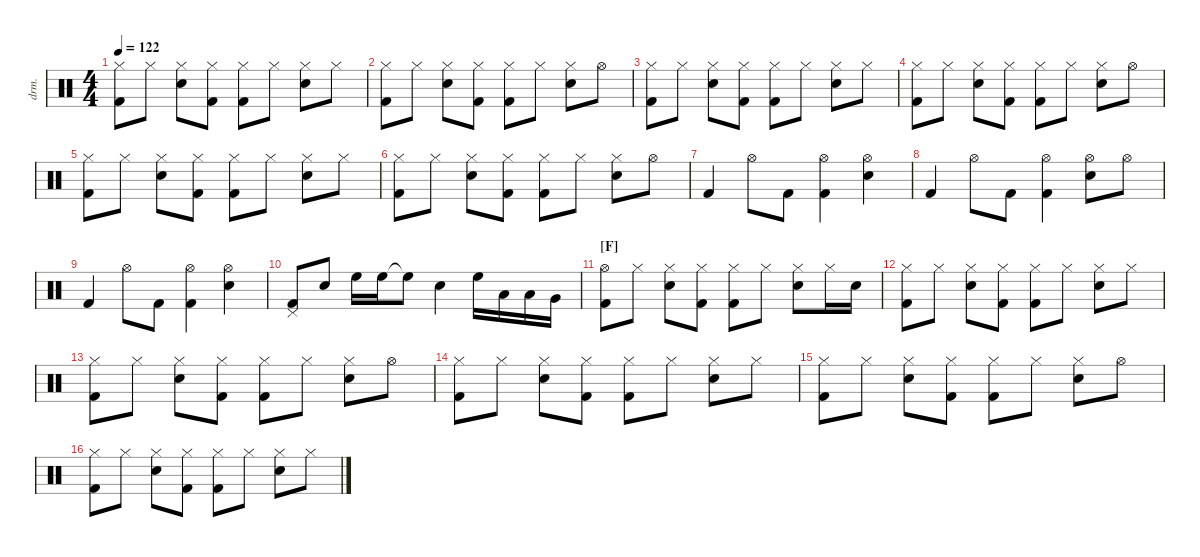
\defaultSystemsLayout 4
\hideDynamics
\bracketExtendMode nobrackets
\track ("Drumkit" "drm.") {defaultSystemsLayout 4 instrument percussion}
\staff {score}
\articulation defaults
\ts (4 4)
\tempo 122
\clef neutral
\ks c
("Hi-Hat (closed)" "Kick (hit) 2").8{dy f} "Hi-Hat (closed)".8 ("Hi-Hat (closed)" "Snare (hit) 2").8 ("Hi-Hat (closed)" "Kick (hit) 2").8 ("Hi-Hat (closed)" "Kick (hit) 2").8 "Hi-Hat (closed)".8 ("Hi-Hat (closed)" "Snare (hit) 2").8 "Hi-Hat (closed)".8 |
("Hi-Hat (closed)" "Kick (hit) 2").8 "Hi-Hat (closed)".8 ("Hi-Hat (closed)" "Snare (hit) 2").8 ("Hi-Hat (closed)" "Kick (hit) 2").8 ("Hi-Hat (closed)" "Kick (hit) 2").8 "Hi-Hat (closed)".8 ("Hi-Hat (closed)" "Snare (hit) 2").8 "Hi-Hat (open)".8 |
("Hi-Hat (closed)" "Kick (hit) 2").8 "Hi-Hat (closed)".8 ("Hi-Hat (closed)" "Snare (hit) 2").8 ("Hi-Hat (closed)" "Kick (hit) 2").8 ("Hi-Hat (closed)" "Kick (hit) 2").8 "Hi-Hat (closed)".8 ("Hi-Hat (closed)" "Snare (hit) 2").8 "Hi-Hat (closed)".8 |
("Hi-Hat (closed)" "Kick (hit) 2").8 "Hi-Hat (closed)".8 ("Hi-Hat (closed)" "Snare (hit) 2").8 ("Hi-Hat (closed)" "Kick (hit) 2").8 ("Hi-Hat (closed)" "Kick (hit) 2").8 "Hi-Hat (closed)".8 ("Hi-Hat (closed)" "Snare (hit) 2").8 "Hi-Hat (open)".8 |
("Hi-Hat (closed)" "Kick (hit) 2").8 "Hi-Hat (closed)".8 ("Hi-Hat (closed)" "Snare (hit) 2").8 ("Hi-Hat (closed)" "Kick (hit) 2").8 ("Hi-Hat (closed)" "Kick (hit) 2").8 "Hi-Hat (closed)".8 ("Hi-Hat (closed)" "Snare (hit) 2").8 "Hi-Hat (closed)".8 |
("Hi-Hat (closed)" "Kick (hit) 2").8 "Hi-Hat (closed)".8 ("Hi-Hat (closed)" "Snare (hit) 2").8 ("Hi-Hat (closed)" "Kick (hit) 2").8 ("Hi-Hat (closed)" "Kick (hit) 2").8 "Hi-Hat (closed)".8 ("Hi-Hat (closed)" "Snare (hit) 2").8 "Hi-Hat (open)".8 |
"Kick (hit) 2".4 "Hi-Hat (open)".8 "Kick (hit) 2".8 ("Hi-Hat (open)" "Kick (hit) 2").4 ("Hi-Hat (open)" "Snare (hit) 2").4 |
"Kick (hit) 2".4 "Hi-Hat (open)".8 "Kick (hit) 2".8 ("Hi-Hat (open)" "Kick (hit) 2").4 ("Hi-Hat (open)" "Snare (hit) 2").8 "Hi-Hat (open)".8 |
"Kick (hit) 2".4 "Hi-Hat (open)".8 "Kick (hit) 2".8 ("Hi-Hat (open)" "Kick (hit) 2").4 ("Hi-Hat (open)" "Snare (hit) 2").4 |
("Pedal Hi-Hat (hit)" "Kick (hit) 2").8 "Snare (hit) 2".8 "High Floor Tom (hit)".16 "High Floor Tom (hit)".16 "High Floor Tom (hit)"{t}.8 "Snare (hit) 2".4 "High Floor Tom (hit)".16 "Low Tom (hit)".16 "Low Tom (hit)".16 "Very Low Tom (hit)".16 |
\section ("F" "")
("Hi-Hat (open)" "Kick (hit) 2").8 "Hi-Hat (closed)".8 ("Hi-Hat (closed)" "Snare (hit) 2").8 ("Hi-Hat (closed)" "Kick (hit) 2").8 ("Hi-Hat (closed)" "Kick (hit) 2").8 "Hi-Hat (closed)".8 ("Hi-Hat (closed)" "Snare (hit) 2").8 "Hi-Hat (closed)".16 "Snare (hit) 2".16 |
("Hi-Hat (closed)" "Kick (hit) 2").8 "Hi-Hat (closed)".8 ("Hi-Hat (closed)" "Snare (hit) 2").8 ("Hi-Hat (closed)" "Kick (hit) 2").8 ("Hi-Hat (closed)" "Kick (hit) 2").8 "Hi-Hat (closed)".8 ("Hi-Hat (closed)" "Snare (hit) 2").8 "Hi-Hat (closed)".8 |
("Hi-Hat (closed)" "Kick (hit) 2").8 "Hi-Hat (closed)".8 ("Hi-Hat (closed)" "Snare (hit) 2").8 ("Hi-Hat (closed)" "Kick (hit) 2").8 ("Hi-Hat (closed)" "Kick (hit) 2").8 "Hi-Hat (closed)".8 ("Hi-Hat (closed)" "Snare (hit) 2").8 "Hi-Hat (open)".8 |
("Hi-Hat (closed)" "Kick (hit) 2").8 "Hi-Hat (closed)".8 ("Hi-Hat (closed)" "Snare (hit) 2").8 ("Hi-Hat (closed)" "Kick (hit) 2").8 ("Hi-Hat (closed)" "Kick (hit) 2").8 "Hi-Hat (closed)".8 ("Hi-Hat (closed)" "Snare (hit) 2").8 "Hi-Hat (closed)".8 |
("Hi-Hat (closed)" "Kick (hit) 2").8 "Hi-Hat (closed)".8 ("Hi-Hat (closed)" "Snare (hit) 2").8 ("Hi-Hat (closed)" "Kick (hit) 2").8 ("Hi-Hat (closed)" "Kick (hit) 2").8 "Hi-Hat (closed)".8 ("Hi-Hat (closed)" "Snare (hit) 2").8 "Hi-Hat (open)".8 |
("Hi-Hat (closed)" "Kick (hit) 2").8 "Hi-Hat (closed)".8 ("Hi-Hat (closed)" "Snare (hit) 2").8 ("Hi-Hat (closed)" "Kick (hit) 2").8 ("Hi-Hat (closed)" "Kick (hit) 2").8 "Hi-Hat (closed)".8 ("Hi-Hat (closed)" "Snare (hit) 2").8 "Hi-Hat (closed)".8
